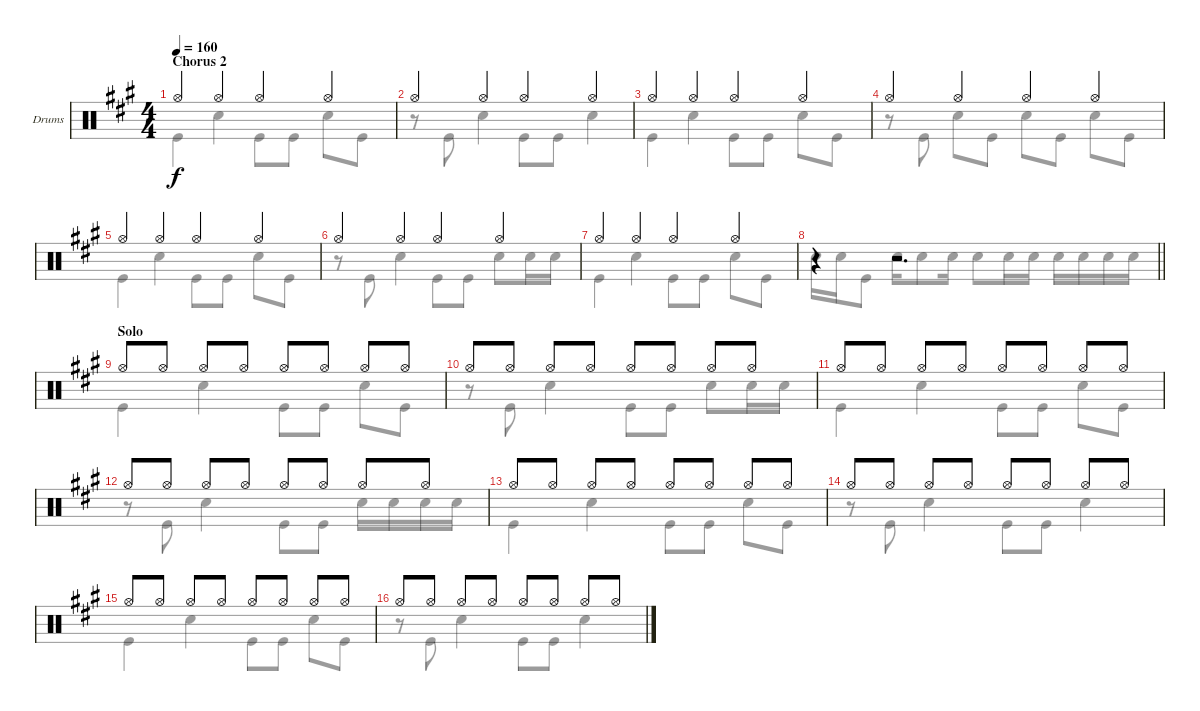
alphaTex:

\bracketExtendMode groupsimilarinstruments
\firstSystemTrackNameOrientation horizontal
\otherSystemsTrackNameOrientation horizontal
\track ("Drumkit" "Drums") {instrument percussion}
\staff {score}
\articulation defaults
\voice
\ts (4 4)
\section ("" "Chorus 2")
\tempo 160
\clef neutral
\ks a "Hi-Hat (open)".4{dy f} "Hi-Hat (open)".4 "Hi-Hat (open)".4 "Hi-Hat (open)".4
|
"Hi-Hat (open)".4 "Hi-Hat (open)".4 "Hi-Hat (open)".4 "Hi-Hat (open)".4 |
"Hi-Hat (open)".4 "Hi-Hat (open)".4 "Hi-Hat (open)".4 "Hi-Hat (open)".4 |
"Hi-Hat (open)".4 "Hi-Hat (open)".4 "Hi-Hat (open)".4 "Hi-Hat (open)".4 |
"Hi-Hat (open)".4 "Hi-Hat (open)".4 "Hi-Hat (open)".4 "Hi-Hat (open)".4 |
"Hi-Hat (open)".4 "Hi-Hat (open)".4 "Hi-Hat (open)".4 "Hi-Hat (open)".4 |
"Hi-Hat (open)".4 "Hi-Hat (open)".4 "Hi-Hat (open)".4 "Hi-Hat (open)".4 |
\barLineRight lightlight
r.4 r.2{d} |
\section ("" "Solo")
"Hi-Hat (open)".8 "Hi-Hat (open)".8 "Hi-Hat (open)".8 "Hi-Hat (open)".8 "Hi-Hat (open)".8 "Hi-Hat (open)".8 "Hi-Hat (open)".8 "Hi-Hat (open)".8 |
"Hi-Hat (open)".8 "Hi-Hat (open)".8 "Hi-Hat (open)".8 "Hi-Hat (open)".8 "Hi-Hat (open)".8 "Hi-Hat (open)".8 "Hi-Hat (open)".8 "Hi-Hat (open)".8 |
"Hi-Hat (open)".8 "Hi-Hat (open)".8 "Hi-Hat (open)".8 "Hi-Hat (open)".8 "Hi-Hat (open)".8 "Hi-Hat (open)".8 "Hi-Hat (open)".8 "Hi-Hat (open)".8 |
"Hi-Hat (open)".8 "Hi-Hat (open)".8 "Hi-Hat (open)".8 "Hi-Hat (open)".8 "Hi-Hat (open)".8 "Hi-Hat (open)".8 "Hi-Hat (open)".8 "Hi-Hat (open)".8 |
"Hi-Hat (open)".8 "Hi-Hat (open)".8 "Hi-Hat (open)".8 "Hi-Hat (open)".8 "Hi-Hat (open)".8 "Hi-Hat (open)".8 "Hi-Hat (open)".8 "Hi-Hat (open)".8 |
"Hi-Hat (open)".8 "Hi-Hat (open)".8 "Hi-Hat (open)".8 "Hi-Hat (open)".8 "Hi-Hat (open)".8 "Hi-Hat (open)".8 "Hi-Hat (open)".8 "Hi-Hat (open)".8 |
"Hi-Hat (open)".8 "Hi-Hat (open)".8 "Hi-Hat (open)".8 "Hi-Hat (open)".8 "Hi-Hat (open)".8 "Hi-Hat (open)".8 "Hi-Hat (open)".8 "Hi-Hat (open)".8 |
"Hi-Hat (open)".8 "Hi-Hat (open)".8 "Hi-Hat (open)".8 "Hi-Hat (open)".8 "Hi-Hat (open)".8 "Hi-Hat (open)".8 "Hi-Hat (open)".8 "Hi-Hat (open)".8
\voice
\clef neutral
\ottava regular
\simile none
\ks a "Kick (hit)".4{dy f} "Snare (hit) 2".4 "Kick (hit)".8 "Kick (hit)".8 "Snare (hit) 2".8 "Kick (hit)".8
|
r.8 "Kick (hit)".8 "Snare (hit) 2".4 "Kick (hit)".8 "Kick (hit)".8 "Snare (hit) 2".4 |
"Kick (hit)".4 "Snare (hit) 2".4 "Kick (hit)".8 "Kick (hit)".8 "Snare (hit) 2".8 "Kick (hit)".8 |
r.8 "Kick (hit)".8 "Snare (hit) 2".8 "Kick (hit)".8 "Snare (hit) 2".8 "Kick (hit)".8 "Snare (hit) 2".8 "Kick (hit)".8 |
"Kick (hit)".4 "Snare (hit) 2".4 "Kick (hit)".8 "Kick (hit)".8 "Snare (hit) 2".8 "Kick (hit)".8 |
r.8 "Kick (hit)".8 "Snare (hit) 2".4 "Kick (hit)".8 "Kick (hit)".8 "Snare (hit) 2".8 "Snare (hit) 2".16 "Snare (hit) 2".16 |
"Kick (hit)".4 "Snare (hit) 2".4 "Kick (hit)".8 "Kick (hit)".8 "Snare (hit) 2".8 "Kick (hit)".8 |
\barLineRight lightlight "Snare (hit) 2".16 "Snare (hit) 2".16 "Kick (hit)".8 "Snare (hit) 2".16 "Snare (hit) 2".8 "Snare (hit) 2".16 "Snare (hit) 2".8 "Snare (hit) 2".16 "Snare (hit) 2".16 "Snare (hit) 2".16 "Snare (hit) 2".16 "Snare (hit) 2".16 "Snare (hit) 2".16
|
"Kick (hit)".4 "Snare (hit) 2".4 "Kick (hit)".8 "Kick (hit)".8 "Snare (hit) 2".8 "Kick (hit)".8 |
r.8 "Kick (hit)".8 "Snare (hit) 2".4 "Kick (hit)".8 "Kick (hit)".8 "Snare (hit) 2".8 "Snare (hit) 2".16 "Snare (hit) 2".16 |
"Kick (hit)".4 "Snare (hit) 2".4 "Kick (hit)".8 "Kick (hit)".8 "Snare (hit) 2".8 "Kick (hit)".8 |
r.8 "Kick (hit)".8 "Snare (hit) 2".4 "Kick (hit)".8 "Kick (hit)".8 "Snare (hit) 2".16 "Snare (hit) 2".16 "Snare (hit) 2".16 "Snare (hit) 2".16 |
"Kick (hit)".4 "Snare (hit) 2".4 "Kick (hit)".8 "Kick (hit)".8 "Snare (hit) 2".8 "Kick (hit)".8 |
r.8 "Kick (hit)".8 "Snare (hit) 2".4 "Kick (hit)".8 "Kick (hit)".8 "Snare (hit) 2".4 |
"Kick (hit)".4 "Snare (hit) 2".4 "Kick (hit)".8 "Kick (hit)".8 "Snare (hit) 2".8 "Kick (hit)".8 |
r.8 "Kick (hit)".8 "Snare (hit) 2".4 "Kick (hit)".8 "Kick (hit)".8 "Snare (hit) 2".4
